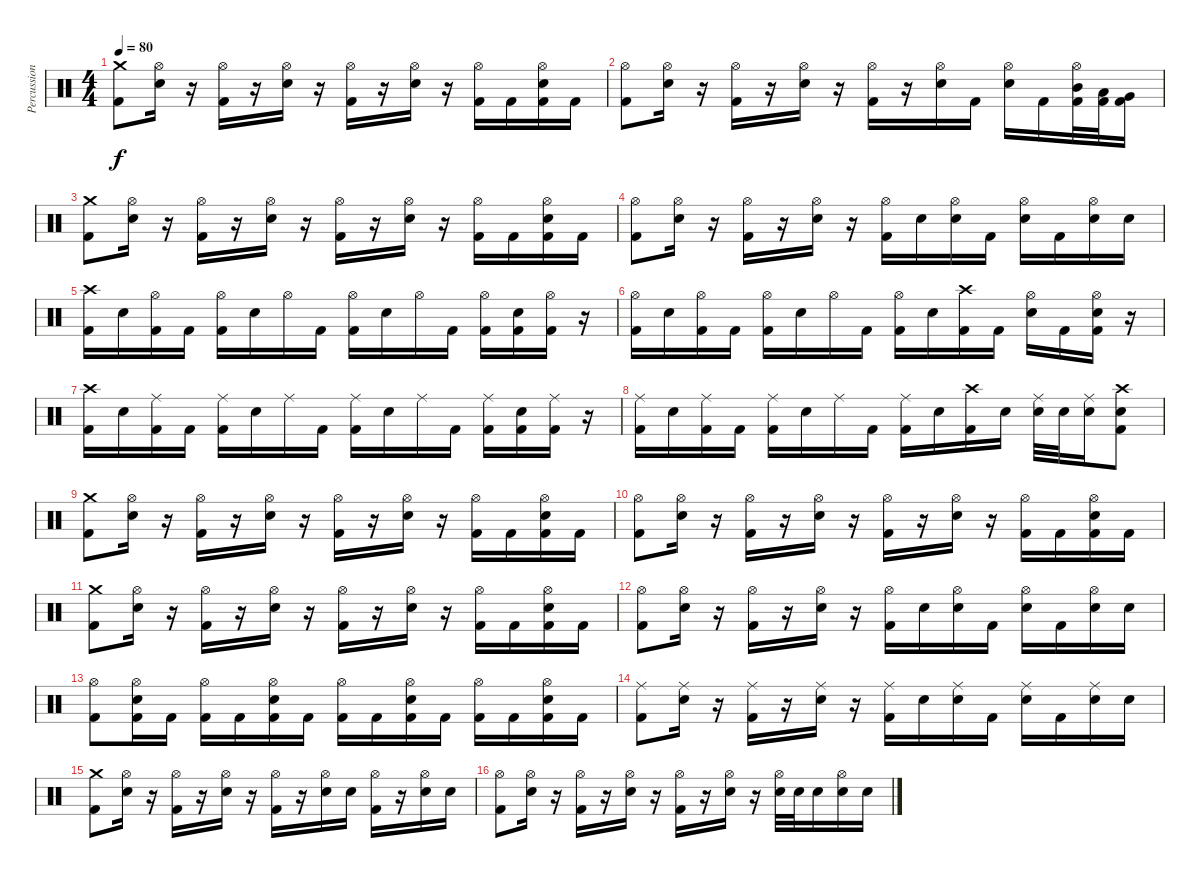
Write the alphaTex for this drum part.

\track ("Percussion" "Percussion") {instrument percussion}
\staff {score}
\articulation defaults
\ts (4 4)
\tempo 80
\clef neutral
\ks c
("Crash medium (hit)" "Kick (hit) 2").8{dy f} ("Hi-Hat (open)" "Electric Snare (hit)").16 r.16 ("Hi-Hat (open)" "Kick (hit) 2").16 r.16 ("Hi-Hat (open)" "Electric Snare (hit)").16 r.16 ("Hi-Hat (open)" "Kick (hit) 2").16 r.16 ("Hi-Hat (open)" "Electric Snare (hit)").16 r.16 ("Hi-Hat (open)" "Kick (hit) 2").16 "Kick (hit) 2".16 ("Hi-Hat (open)" "Electric Snare (hit)" "Kick (hit) 2").16 "Kick (hit) 2".16 |
("Hi-Hat (open)" "Kick (hit) 2").8 ("Hi-Hat (open)" "Electric Snare (hit)").16 r.16 ("Hi-Hat (open)" "Kick (hit) 2").16 r.16 ("Hi-Hat (open)" "Electric Snare (hit)").16 r.16 ("Hi-Hat (open)" "Kick (hit) 2").16 r.16 ("Hi-Hat (open)" "Electric Snare (hit)").16 "Kick (hit) 2".16 ("Hi-Hat (open)" "Electric Snare (hit)").16 "Kick (hit) 2".16 ("Hi-Hat (open)" "Mid Tom (hit)" "Kick (hit) 2").32 ("Low Tom (hit)" "Kick (hit) 2").32 ("Very Low Tom (hit)" "Kick (hit) 2").16 |
("Crash medium (hit)" "Kick (hit) 2").8 ("Hi-Hat (open)" "Electric Snare (hit)").16 r.16 ("Hi-Hat (open)" "Kick (hit) 2").16 r.16 ("Hi-Hat (open)" "Electric Snare (hit)").16 r.16 ("Hi-Hat (open)" "Kick (hit) 2").16 r.16 ("Hi-Hat (open)" "Electric Snare (hit)").16 r.16 ("Hi-Hat (open)" "Kick (hit) 2").16 "Kick (hit) 2".16 ("Hi-Hat (open)" "Electric Snare (hit)" "Kick (hit) 2").16 "Kick (hit) 2".16 |
("Hi-Hat (open)" "Kick (hit) 2").8 ("Hi-Hat (open)" "Electric Snare (hit)").16 r.16 ("Hi-Hat (open)" "Kick (hit) 2").16 r.16 ("Hi-Hat (open)" "Electric Snare (hit)").16 r.16 ("Hi-Hat (open)" "Kick (hit) 2").16 "Electric Snare (hit)".16 ("Hi-Hat (open)" "Electric Snare (hit)").16 "Kick (hit) 2".16 ("Hi-Hat (open)" "Electric Snare (hit)").16 "Kick (hit) 2".16 ("Hi-Hat (open)" "Electric Snare (hit)").16 "Electric Snare (hit)".16 |
("Crash high (hit)" "Kick (hit) 2").16 "Electric Snare (hit)".16 ("Hi-Hat (open)" "Kick (hit) 2").16 "Kick (hit) 2".16 ("Hi-Hat (open)" "Kick (hit) 2").16 "Electric Snare (hit)".16 "Hi-Hat (open)".16 "Kick (hit) 2".16 ("Hi-Hat (open)" "Kick (hit) 2").16 "Electric Snare (hit)".16 "Hi-Hat (open)".16 "Kick (hit) 2".16 ("Hi-Hat (open)" "Kick (hit) 2").16 ("Electric Snare (hit)" "Kick (hit) 2").16 ("Hi-Hat (open)" "Kick (hit) 2").16 r.16 |
("Hi-Hat (open)" "Kick (hit) 2").16 "Electric Snare (hit)".16 ("Hi-Hat (open)" "Kick (hit) 2").16 "Kick (hit) 2".16 ("Hi-Hat (open)" "Kick (hit) 2").16 "Electric Snare (hit)".16 "Hi-Hat (open)".16 "Kick (hit) 2".16 ("Hi-Hat (open)" "Kick (hit) 2").16 "Electric Snare (hit)".16 ("Crash high (hit)" "Kick (hit) 2").16 "Kick (hit) 2".16 ("Hi-Hat (open)" "Electric Snare (hit)").16 "Kick (hit) 2".16 ("Hi-Hat (open)" "Electric Snare (hit)" "Kick (hit) 2").16 r.16 |
("Crash high (hit)" "Kick (hit) 2").16 "Electric Snare (hit)".16 ("Ride (middle)" "Kick (hit) 2").16 "Kick (hit) 2".16 ("Ride (middle)" "Kick (hit) 2").16 "Electric Snare (hit)".16 "Ride (middle)".16 "Kick (hit) 2".16 ("Ride (middle)" "Kick (hit) 2").16 "Electric Snare (hit)".16 "Ride (middle)".16 "Kick (hit) 2".16 ("Ride (middle)" "Kick (hit) 2").16 ("Electric Snare (hit)" "Kick (hit) 2").16 ("Ride (middle)" "Kick (hit) 2").16 r.16 |
("Ride (middle)" "Kick (hit) 2").16 "Electric Snare (hit)".16 ("Ride (middle)" "Kick (hit) 2").16 "Kick (hit) 2".16 ("Ride (middle)" "Kick (hit) 2").16 "Electric Snare (hit)".16 "Ride (middle)".16 "Kick (hit) 2".16 ("Ride (middle)" "Kick (hit) 2").16 "Electric Snare (hit)".16 ("Crash high (hit)" "Kick (hit) 2").16 "Electric Snare (hit)".16 ("Ride (middle)" "Electric Snare (hit)").32 "Electric Snare (hit)".32 ("Ride (middle)" "Electric Snare (hit)").16 ("Crash high (hit)" "Electric Snare (hit)" "Kick (hit) 2").8 |
("Crash medium (hit)" "Kick (hit) 2").8 ("Hi-Hat (open)" "Electric Snare (hit)").16 r.16 ("Hi-Hat (open)" "Kick (hit) 2").16 r.16 ("Hi-Hat (open)" "Electric Snare (hit)").16 r.16 ("Hi-Hat (open)" "Kick (hit) 2").16 r.16 ("Hi-Hat (open)" "Electric Snare (hit)").16 r.16 ("Hi-Hat (open)" "Kick (hit) 2").16 "Kick (hit) 2".16 ("Hi-Hat (open)" "Electric Snare (hit)" "Kick (hit) 2").16 "Kick (hit) 2".16 |
("Hi-Hat (open)" "Kick (hit) 2").8 ("Hi-Hat (open)" "Electric Snare (hit)").16 r.16 ("Hi-Hat (open)" "Kick (hit) 2").16 r.16 ("Hi-Hat (open)" "Electric Snare (hit)").16 r.16 ("Hi-Hat (open)" "Kick (hit) 2").16 r.16 ("Hi-Hat (open)" "Electric Snare (hit)").16 r.16 ("Hi-Hat (open)" "Kick (hit) 2").16 "Kick (hit) 2".16 ("Hi-Hat (open)" "Electric Snare (hit)" "Kick (hit) 2").16 "Kick (hit) 2".16 |
("Crash medium (hit)" "Kick (hit) 2").8 ("Hi-Hat (open)" "Electric Snare (hit)").16 r.16 ("Hi-Hat (open)" "Kick (hit) 2").16 r.16 ("Hi-Hat (open)" "Electric Snare (hit)").16 r.16 ("Hi-Hat (open)" "Kick (hit) 2").16 r.16 ("Hi-Hat (open)" "Electric Snare (hit)").16 r.16 ("Hi-Hat (open)" "Kick (hit) 2").16 "Kick (hit) 2".16 ("Hi-Hat (open)" "Electric Snare (hit)" "Kick (hit) 2").16 "Kick (hit) 2".16 |
("Hi-Hat (open)" "Kick (hit) 2").8 ("Hi-Hat (open)" "Electric Snare (hit)").16 r.16 ("Hi-Hat (open)" "Kick (hit) 2").16 r.16 ("Hi-Hat (open)" "Electric Snare (hit)").16 r.16 ("Hi-Hat (open)" "Kick (hit) 2").16 "Electric Snare (hit)".16 ("Hi-Hat (open)" "Electric Snare (hit)").16 "Kick (hit) 2".16 ("Hi-Hat (open)" "Electric Snare (hit)").16 "Kick (hit) 2".16 ("Hi-Hat (open)" "Electric Snare (hit)").16 "Electric Snare (hit)".16 |
("Hi-Hat (open)" "Kick (hit) 2").8 ("Hi-Hat (open)" "Electric Snare (hit)" "Kick (hit) 2").16 "Kick (hit) 2".16 ("Hi-Hat (open)" "Kick (hit) 2").16 "Kick (hit) 2".16 ("Hi-Hat (open)" "Electric Snare (hit)" "Kick (hit) 2").16 "Kick (hit) 2".16 ("Hi-Hat (open)" "Kick (hit) 2").16 "Kick (hit) 2".16 ("Hi-Hat (open)" "Electric Snare (hit)" "Kick (hit) 2").16 "Kick (hit) 2".16 ("Hi-Hat (open)" "Kick (hit) 2").16 "Kick (hit) 2".16 ("Hi-Hat (open)" "Electric Snare (hit)" "Kick (hit) 2").16 "Kick (hit) 2".16 |
("Ride (middle)" "Kick (hit) 2").8 ("Ride (middle)" "Electric Snare (hit)").16 r.16 ("Ride (middle)" "Kick (hit) 2").16 r.16 ("Ride (middle)" "Electric Snare (hit)").16 r.16 ("Ride (middle)" "Kick (hit) 2").16 "Electric Snare (hit)".16 ("Ride (middle)" "Electric Snare (hit)").16 "Kick (hit) 2".16 ("Ride (middle)" "Electric Snare (hit)").16 "Kick (hit) 2".16 ("Ride (middle)" "Electric Snare (hit)").16 "Electric Snare (hit)".16 |
("Crash medium (hit)" "Kick (hit) 2").8 ("Hi-Hat (open)" "Electric Snare (hit)").16 r.16 ("Hi-Hat (open)" "Kick (hit) 2").16 r.16 ("Hi-Hat (open)" "Electric Snare (hit)").16 r.16 ("Hi-Hat (open)" "Kick (hit) 2").16 r.16 ("Hi-Hat (open)" "Electric Snare (hit)").16 "Electric Snare (hit)".16 ("Hi-Hat (open)" "Kick (hit) 2").16 r.16 ("Hi-Hat (open)" "Electric Snare (hit)").16 "Electric Snare (hit)".16 |
("Hi-Hat (open)" "Kick (hit) 2").8 ("Hi-Hat (open)" "Electric Snare (hit)").16 r.16 ("Hi-Hat (open)" "Kick (hit) 2").16 r.16 ("Hi-Hat (open)" "Electric Snare (hit)").16 r.16 ("Hi-Hat (open)" "Kick (hit) 2").16 r.16 ("Hi-Hat (open)" "Electric Snare (hit)").16 r.16 ("Hi-Hat (open)" "Electric Snare (hit)").32 "Electric Snare (hit)".32 "Electric Snare (hit)".16 ("Hi-Hat (open)" "Electric Snare (hit)").16 "Electric Snare (hit)".16
